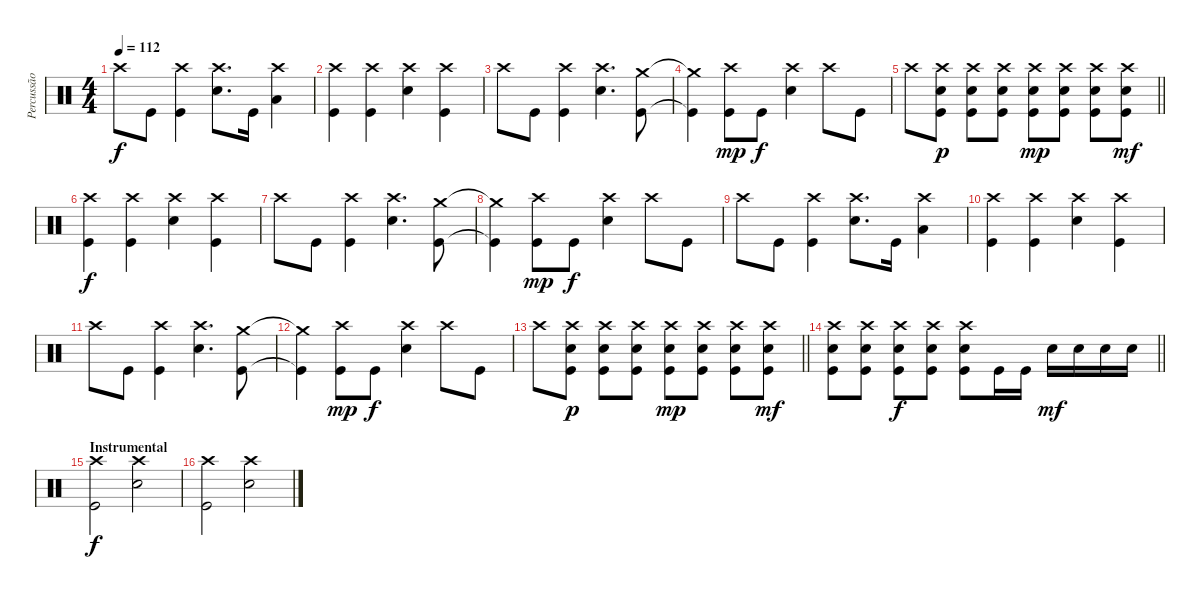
\track ("Percussão" "Percussão") {instrument percussion}
\staff {score}
\articulation defaults
\ts (4 4)
\tempo 112
\clef neutral
\ks c "Crash high (hit)".8{dy f} "Kick (hit)".8
("Crash high (hit)" "Kick (hit)").4 ("Crash high (hit)" "Electric Snare (hit)").8{d} "Kick (hit)".16 ("Crash high (hit)" "Low Tom (hit)").4 |
("Crash high (hit)" "Kick (hit)").4 ("Crash high (hit)" "Kick (hit)").4 ("Crash high (hit)" "Electric Snare (hit)").4 ("Crash high (hit)" "Kick (hit)").4 |
"Crash high (hit)".8 "Kick (hit)".8 ("Crash high (hit)" "Kick (hit)").4 ("Crash high (hit)" "Electric Snare (hit)").4{d} ("Crash medium (hit)" "Kick (hit)").8 |
("Crash medium (hit)"{t} "Kick (hit)"{t}).4 ("Crash high (hit)" "Kick (hit)").8{dy mp} "Kick (hit)".8{dy f} ("Crash high (hit)" "Electric Snare (hit)").4 "Crash high (hit)".8 "Kick (hit)".8 |
\barLineRight lightlight "Crash high (hit)".8
("Crash high (hit)" "Electric Snare (hit)" "Kick (hit)").8{dy p} ("Crash high (hit)" "Electric Snare (hit)" "Kick (hit)").8 ("Crash high (hit)" "Electric Snare (hit)" "Kick (hit)").8 ("Crash high (hit)" "Electric Snare (hit)" "Kick (hit)").8{dy mp} ("Crash high (hit)" "Electric Snare (hit)" "Kick (hit)").8 ("Crash high (hit)" "Electric Snare (hit)" "Kick (hit)").8 ("Crash high (hit)" "Electric Snare (hit)" "Kick (hit)").8{dy mf} |
\section ("" "")
("Crash high (hit)" "Kick (hit)").4{dy f} ("Crash high (hit)" "Kick (hit)").4 ("Crash high (hit)" "Electric Snare (hit)").4 ("Crash high (hit)" "Kick (hit)").4 |
"Crash high (hit)".8 "Kick (hit)".8 ("Crash high (hit)" "Kick (hit)").4 ("Crash high (hit)" "Electric Snare (hit)").4{d} ("Crash medium (hit)" "Kick (hit)").8 |
("Crash medium (hit)"{t} "Kick (hit)"{t}).4 ("Crash high (hit)" "Kick (hit)").8{dy mp} "Kick (hit)".8{dy f} ("Crash high (hit)" "Electric Snare (hit)").4 "Crash high (hit)".8 "Kick (hit)".8 |
"Crash high (hit)".8 "Kick (hit)".8 ("Crash high (hit)" "Kick (hit)").4 ("Crash high (hit)" "Electric Snare (hit)").8{d} "Kick (hit)".16 ("Crash high (hit)" "Low Tom (hit)").4 |
("Crash high (hit)" "Kick (hit)").4 ("Crash high (hit)" "Kick (hit)").4 ("Crash high (hit)" "Electric Snare (hit)").4 ("Crash high (hit)" "Kick (hit)").4 |
"Crash high (hit)".8 "Kick (hit)".8 ("Crash high (hit)" "Kick (hit)").4 ("Crash high (hit)" "Electric Snare (hit)").4{d} ("Crash medium (hit)" "Kick (hit)").8 |
("Crash medium (hit)"{t} "Kick (hit)"{t}).4 ("Crash high (hit)" "Kick (hit)").8{dy mp} "Kick (hit)".8{dy f} ("Crash high (hit)" "Electric Snare (hit)").4 "Crash high (hit)".8 "Kick (hit)".8 |
\barLineRight lightlight "Crash high (hit)".8
("Crash high (hit)" "Electric Snare (hit)" "Kick (hit)").8{dy p} ("Crash high (hit)" "Electric Snare (hit)" "Kick (hit)").8 ("Crash high (hit)" "Electric Snare (hit)" "Kick (hit)").8 ("Crash high (hit)" "Electric Snare (hit)" "Kick (hit)").8{dy mp} ("Crash high (hit)" "Electric Snare (hit)" "Kick (hit)").8 ("Crash high (hit)" "Electric Snare (hit)" "Kick (hit)").8 ("Crash high (hit)" "Electric Snare (hit)" "Kick (hit)").8{dy mf} |
\barLineRight lightlight
("Crash high (hit)" "Electric Snare (hit)" "Kick (hit)").8 ("Crash high (hit)" "Electric Snare (hit)" "Kick (hit)").8 ("Crash high (hit)" "Electric Snare (hit)" "Kick (hit)").8{dy f} ("Crash high (hit)" "Electric Snare (hit)" "Kick (hit)").8 ("Crash high (hit)" "Electric Snare (hit)" "Kick (hit)").8 "Kick (hit)".16 "Kick (hit)".16 "Electric Snare (hit)".16{dy mf} "Electric Snare (hit)".16 "Electric Snare (hit)".16 "Electric Snare (hit)".16 |
\section ("" "Instrumental")
("Crash high (hit)" "Kick (hit)").2{dy f} ("Crash high (hit)" "Electric Snare (hit)").2 |
("Crash high (hit)" "Kick (hit)").2 ("Crash high (hit)" "Electric Snare (hit)").2
